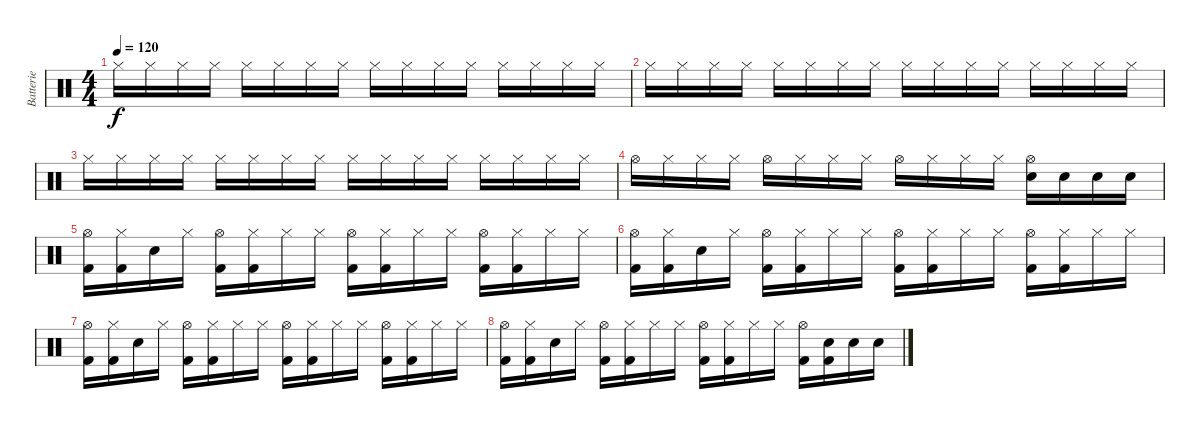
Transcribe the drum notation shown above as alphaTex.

\track ("Batterie" "Batterie") {instrument percussion}
\staff {score}
\articulation defaults
\ts (4 4)
\tempo 120
\clef neutral
\ks c "Hi-Hat (closed)".16{dy f} "Hi-Hat (closed)".16 "Hi-Hat (closed)".16 "Hi-Hat (closed)".16 "Hi-Hat (closed)".16 "Hi-Hat (closed)".16 "Hi-Hat (closed)".16 "Hi-Hat (closed)".16 "Hi-Hat (closed)".16 "Hi-Hat (closed)".16 "Hi-Hat (closed)".16 "Hi-Hat (closed)".16 "Hi-Hat (closed)".16 "Hi-Hat (closed)".16 "Hi-Hat (closed)".16 "Hi-Hat (closed)".16
|
"Hi-Hat (closed)".16 "Hi-Hat (closed)".16 "Hi-Hat (closed)".16 "Hi-Hat (closed)".16 "Hi-Hat (closed)".16 "Hi-Hat (closed)".16 "Hi-Hat (closed)".16 "Hi-Hat (closed)".16 "Hi-Hat (closed)".16 "Hi-Hat (closed)".16 "Hi-Hat (closed)".16 "Hi-Hat (closed)".16 "Hi-Hat (closed)".16 "Hi-Hat (closed)".16 "Hi-Hat (closed)".16 "Hi-Hat (closed)".16 |
"Hi-Hat (closed)".16 "Hi-Hat (closed)".16 "Hi-Hat (closed)".16 "Hi-Hat (closed)".16 "Hi-Hat (closed)".16 "Hi-Hat (closed)".16 "Hi-Hat (closed)".16 "Hi-Hat (closed)".16 "Hi-Hat (closed)".16 "Hi-Hat (closed)".16 "Hi-Hat (closed)".16 "Hi-Hat (closed)".16 "Hi-Hat (closed)".16 "Hi-Hat (closed)".16 "Hi-Hat (closed)".16 "Hi-Hat (closed)".16 |
"Hi-Hat (open)".16 "Hi-Hat (closed)".16 "Hi-Hat (closed)".16 "Hi-Hat (closed)".16 "Hi-Hat (open)".16 "Hi-Hat (closed)".16 "Hi-Hat (closed)".16 "Hi-Hat (closed)".16 "Hi-Hat (open)".16 "Hi-Hat (closed)".16 "Hi-Hat (closed)".16 "Hi-Hat (closed)".16 ("Electric Snare (hit)" "Hi-Hat (open)").16 "Electric Snare (hit)".16 "Electric Snare (hit)".16 "Electric Snare (hit)".16 |
("Hi-Hat (open)" "Kick (hit) 2").16 ("Hi-Hat (closed)" "Kick (hit) 2").16 "Electric Snare (hit)".16 "Hi-Hat (closed)".16 ("Hi-Hat (open)" "Kick (hit) 2").16 ("Hi-Hat (closed)" "Kick (hit) 2").16 "Hi-Hat (closed)".16 "Hi-Hat (closed)".16 ("Hi-Hat (open)" "Kick (hit) 2").16 ("Hi-Hat (closed)" "Kick (hit) 2").16 "Hi-Hat (closed)".16 "Hi-Hat (closed)".16 ("Hi-Hat (open)" "Kick (hit) 2").16 ("Hi-Hat (closed)" "Kick (hit) 2").16 "Hi-Hat (closed)".16 "Hi-Hat (closed)".16 |
("Hi-Hat (open)" "Kick (hit) 2").16 ("Hi-Hat (closed)" "Kick (hit) 2").16 "Electric Snare (hit)".16 "Hi-Hat (closed)".16 ("Hi-Hat (open)" "Kick (hit) 2").16 ("Hi-Hat (closed)" "Kick (hit) 2").16 "Hi-Hat (closed)".16 "Hi-Hat (closed)".16 ("Hi-Hat (open)" "Kick (hit) 2").16 ("Hi-Hat (closed)" "Kick (hit) 2").16 "Hi-Hat (closed)".16 "Hi-Hat (closed)".16 ("Hi-Hat (open)" "Kick (hit) 2").16 ("Hi-Hat (closed)" "Kick (hit) 2").16 "Hi-Hat (closed)".16 "Hi-Hat (closed)".16 |
("Hi-Hat (open)" "Kick (hit) 2").16 ("Hi-Hat (closed)" "Kick (hit) 2").16 "Electric Snare (hit)".16 "Hi-Hat (closed)".16 ("Hi-Hat (open)" "Kick (hit) 2").16 ("Hi-Hat (closed)" "Kick (hit) 2").16 "Hi-Hat (closed)".16 "Hi-Hat (closed)".16 ("Hi-Hat (open)" "Kick (hit) 2").16 ("Hi-Hat (closed)" "Kick (hit) 2").16 "Hi-Hat (closed)".16 "Hi-Hat (closed)".16 ("Hi-Hat (open)" "Kick (hit) 2").16 ("Hi-Hat (closed)" "Kick (hit) 2").16 "Hi-Hat (closed)".16 "Hi-Hat (closed)".16 |
("Hi-Hat (open)" "Kick (hit) 2").16 ("Hi-Hat (closed)" "Kick (hit) 2").16 "Electric Snare (hit)".16 "Hi-Hat (closed)".16 ("Hi-Hat (open)" "Kick (hit) 2").16 ("Hi-Hat (closed)" "Kick (hit) 2").16 "Hi-Hat (closed)".16 "Hi-Hat (closed)".16 ("Hi-Hat (open)" "Kick (hit) 2").16 ("Hi-Hat (closed)" "Kick (hit) 2").16 "Hi-Hat (closed)".16 "Hi-Hat (closed)".16 ("Hi-Hat (open)" "Kick (hit) 2").16 ("Electric Snare (hit)" "Kick (hit) 2").16 "Electric Snare (hit)".16 "Electric Snare (hit)".16
